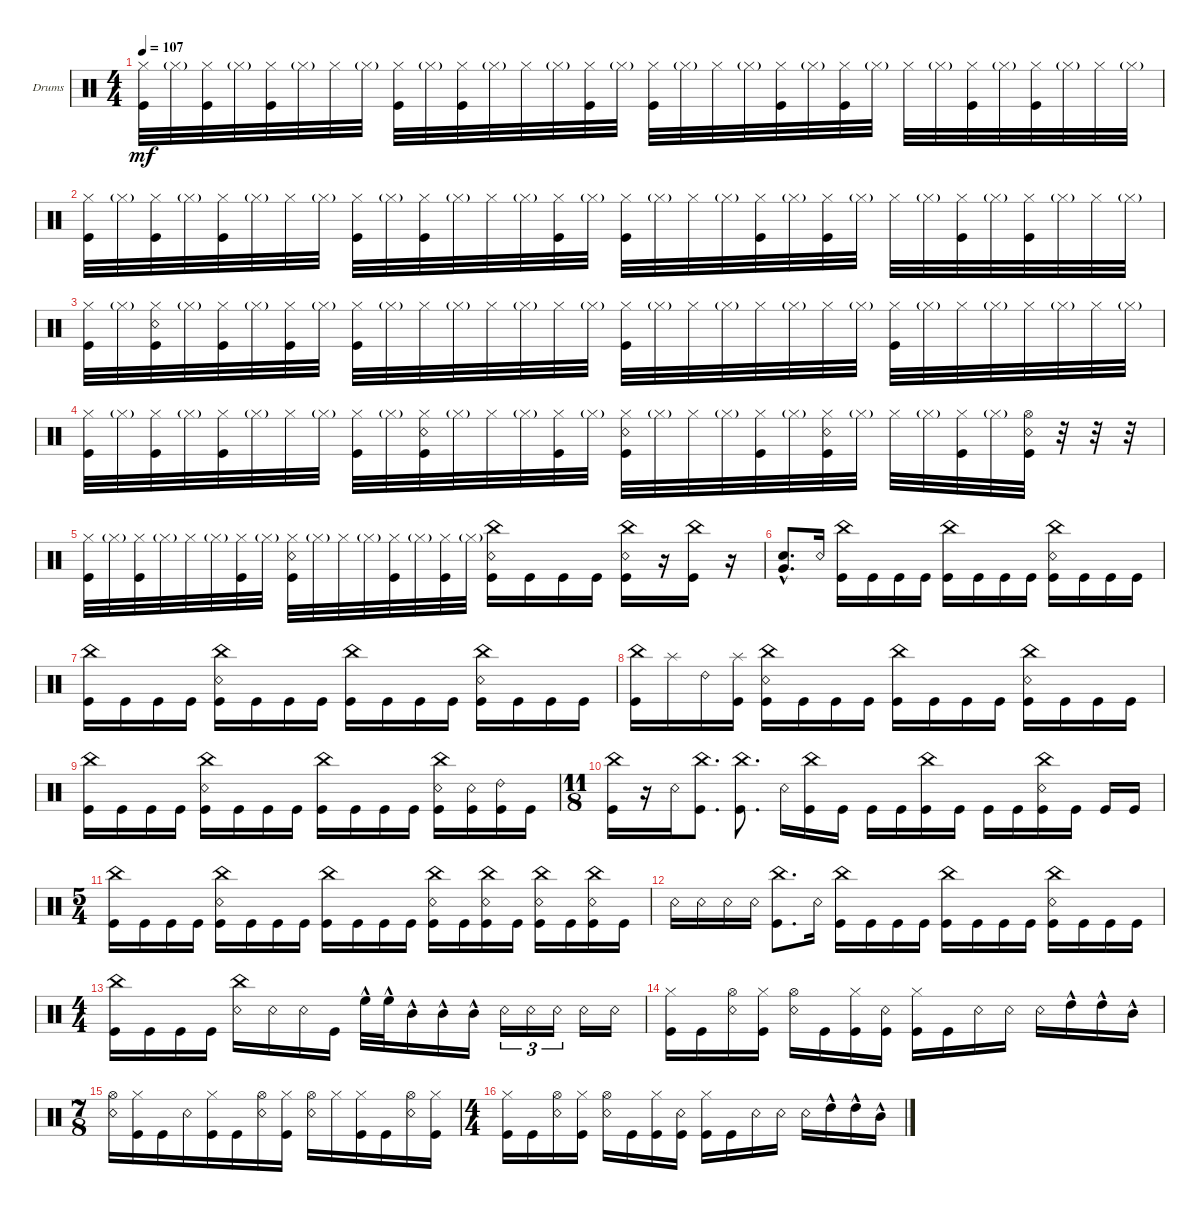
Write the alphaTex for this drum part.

\defaultSystemsLayout 4
\bracketExtendMode groupsimilarinstruments
\firstSystemTrackNameOrientation horizontal
\otherSystemsTrackNameOrientation horizontal
\track ("Drumkit" "Drums") {instrument percussion}
\staff {score}
\articulation defaults
\ts (4 4)
\tempo 107
\clef neutral
\scale
0.333333
\ks c
("Hi-Hat (closed)" "Kick (hit)").32{dy mf} "Hi-Hat (closed)"{g}.32 ("Hi-Hat (closed)" "Kick (hit)").32 "Hi-Hat (closed)"{g}.32 ("Hi-Hat (closed)" "Kick (hit)").32 "Hi-Hat (closed)"{g}.32 "Hi-Hat (closed)".32 "Hi-Hat (closed)"{g}.32 ("Hi-Hat (closed)" "Kick (hit)").32 "Hi-Hat (closed)"{g}.32 ("Hi-Hat (closed)" "Kick (hit)").32 "Hi-Hat (closed)"{g}.32 "Hi-Hat (closed)".32 "Hi-Hat (closed)"{g}.32 ("Hi-Hat (closed)" "Kick (hit)").32 "Hi-Hat (closed)"{g}.32 ("Hi-Hat (closed)" "Kick (hit)").32 "Hi-Hat (closed)"{g}.32 "Hi-Hat (closed)".32 "Hi-Hat (closed)"{g}.32 ("Hi-Hat (closed)" "Kick (hit)").32 "Hi-Hat (closed)"{g}.32 ("Hi-Hat (closed)" "Kick (hit)").32 "Hi-Hat (closed)"{g}.32 "Hi-Hat (closed)".32 "Hi-Hat (closed)"{g}.32 ("Hi-Hat (closed)" "Kick (hit)").32 "Hi-Hat (closed)"{g}.32 ("Hi-Hat (closed)" "Kick (hit)").32 "Hi-Hat (closed)"{g}.32 "Hi-Hat (closed)".32 "Hi-Hat (closed)"{g}.32 |
\scale
0.333333 ("Hi-Hat (closed)" "Kick (hit)").32 "Hi-Hat (closed)"{g}.32 ("Hi-Hat (closed)" "Kick (hit)").32 "Hi-Hat (closed)"{g}.32 ("Hi-Hat (closed)" "Kick (hit)").32 "Hi-Hat (closed)"{g}.32 "Hi-Hat (closed)".32 "Hi-Hat (closed)"{g}.32 ("Hi-Hat (closed)" "Kick (hit)").32 "Hi-Hat (closed)"{g}.32 ("Hi-Hat (closed)" "Kick (hit)").32 "Hi-Hat (closed)"{g}.32 "Hi-Hat (closed)".32 "Hi-Hat (closed)"{g}.32 ("Hi-Hat (closed)" "Kick (hit)").32 "Hi-Hat (closed)"{g}.32 ("Hi-Hat (closed)" "Kick (hit)").32 "Hi-Hat (closed)"{g}.32 "Hi-Hat (closed)".32 "Hi-Hat (closed)"{g}.32 ("Hi-Hat (closed)" "Kick (hit)").32 "Hi-Hat (closed)"{g}.32 ("Hi-Hat (closed)" "Kick (hit)").32 "Hi-Hat (closed)"{g}.32 "Hi-Hat (closed)".32 "Hi-Hat (closed)"{g}.32 ("Hi-Hat (closed)" "Kick (hit)").32 "Hi-Hat (closed)"{g}.32 ("Hi-Hat (closed)" "Kick (hit)").32 "Hi-Hat (closed)"{g}.32 "Hi-Hat (closed)".32 "Hi-Hat (closed)"{g}.32 |
\scale
0.333333 ("Hi-Hat (closed)" "Kick (hit)").32 "Hi-Hat (closed)"{g}.32 ("Hi-Hat (closed)" "Kick (hit)" "Snare (rim shot)").32 "Hi-Hat (closed)"{g}.32 ("Hi-Hat (closed)" "Kick (hit)").32 "Hi-Hat (closed)"{g}.32 ("Hi-Hat (closed)" "Kick (hit)").32 "Hi-Hat (closed)"{g}.32 ("Hi-Hat (closed)" "Kick (hit)").32 "Hi-Hat (closed)"{g}.32 "Hi-Hat (closed)".32 "Hi-Hat (closed)"{g}.32 "Hi-Hat (closed)".32 "Hi-Hat (closed)"{g}.32 "Hi-Hat (closed)".32 "Hi-Hat (closed)"{g}.32 ("Hi-Hat (closed)" "Kick (hit)").32 "Hi-Hat (closed)"{g}.32 "Hi-Hat (closed)".32 "Hi-Hat (closed)"{g}.32 "Hi-Hat (closed)".32 "Hi-Hat (closed)"{g}.32 "Hi-Hat (closed)".32 "Hi-Hat (closed)"{g}.32 ("Hi-Hat (closed)" "Kick (hit)").32 "Hi-Hat (closed)"{g}.32 "Hi-Hat (closed)".32 "Hi-Hat (closed)"{g}.32 "Hi-Hat (closed)".32 "Hi-Hat (closed)"{g}.32 "Hi-Hat (closed)".32 "Hi-Hat (closed)"{g}.32 |
\scale
0.333333 ("Hi-Hat (closed)" "Kick (hit)").32 "Hi-Hat (closed)"{g}.32 ("Hi-Hat (closed)" "Kick (hit)").32 "Hi-Hat (closed)"{g}.32 ("Hi-Hat (closed)" "Kick (hit)").32 "Hi-Hat (closed)"{g}.32 "Hi-Hat (closed)".32 "Hi-Hat (closed)"{g}.32 ("Hi-Hat (closed)" "Kick (hit)").32 "Hi-Hat (closed)"{g}.32 ("Hi-Hat (closed)" "Kick (hit)" "Snare (rim shot)").32 "Hi-Hat (closed)"{g}.32 "Hi-Hat (closed)".32 "Hi-Hat (closed)"{g}.32 ("Hi-Hat (closed)" "Kick (hit)").32 "Hi-Hat (closed)"{g}.32 ("Hi-Hat (closed)" "Kick (hit)" "Snare (rim shot)").32 "Hi-Hat (closed)"{g}.32 "Hi-Hat (closed)".32 "Hi-Hat (closed)"{g}.32 ("Hi-Hat (closed)" "Kick (hit)").32 "Hi-Hat (closed)"{g}.32 ("Hi-Hat (closed)" "Kick (hit)" "Snare (rim shot)").32 "Hi-Hat (closed)"{g}.32 "Hi-Hat (closed)".32 "Hi-Hat (closed)"{g}.32 ("Hi-Hat (closed)" "Kick (hit)").32 "Hi-Hat (closed)"{g}.32 ("Hi-Hat (open)" "Kick (hit)" "Snare (rim shot)").32 r.32 r.32 r.32 |
\scale
0.333333 ("Hi-Hat (closed)" "Kick (hit)").32 "Hi-Hat (closed)"{g}.32 ("Hi-Hat (closed)" "Kick (hit)").32 "Hi-Hat (closed)"{g}.32 "Hi-Hat (closed)".32 "Hi-Hat (closed)"{g}.32 ("Hi-Hat (closed)" "Kick (hit)").32 "Hi-Hat (closed)"{g}.32 ("Hi-Hat (closed)" "Kick (hit)" "Snare (rim shot)").32 "Hi-Hat (closed)"{g}.32 "Hi-Hat (closed)".32 "Hi-Hat (closed)"{g}.32 ("Hi-Hat (closed)" "Kick (hit)").32 "Hi-Hat (closed)"{g}.32 ("Hi-Hat (closed)" "Kick (hit)").32 "Hi-Hat (closed)"{g}.32 ("Snare (rim shot)" "China (hit)" "Kick (hit)").16 "Kick (hit)".16 "Kick (hit)".16 "Kick (hit)".16 ("Snare (rim shot)" "Kick (hit)" "China (hit)").16 r.16 ("Kick (hit)" "China (hit)").16 r.16 |
\scale
0.333333 ("Snare (hit) 2" "Very Low Tom (hit)"{hac}).8{d} "Snare (rim shot)".16 ("Kick (hit)" "China (hit)").16 "Kick (hit)".16 "Kick (hit)".16 "Kick (hit)".16 ("Kick (hit)" "China (hit)").16 "Kick (hit)".16 "Kick (hit)".16 "Kick (hit)".16 ("Kick (hit)" "China (hit)" "Snare (rim shot)").16 "Kick (hit)".16 "Kick (hit)".16 "Kick (hit)".16 |
\scale
0.333333 ("Kick (hit)" "China (hit)").16 "Kick (hit)".16 "Kick (hit)".16 "Kick (hit)".16 ("Kick (hit)" "China (hit)" "Snare (rim shot)").16 "Kick (hit)".16 "Kick (hit)".16 "Kick (hit)".16 ("Kick (hit)" "China (hit)").16 "Kick (hit)".16 "Kick (hit)".16 "Kick (hit)".16 ("Kick (hit)" "China (hit)" "Snare (rim shot)").16 "Kick (hit)".16 "Kick (hit)".16 "Kick (hit)".16 |
\scale
0.333333 ("Kick (hit)" "China (hit)").16 "Splash (hit)".16 "Ride (bell) 2".16 ("Splash (hit)" "Kick (hit)").16 ("Kick (hit)" "China (hit)" "Snare (rim shot)").16 "Kick (hit)".16 "Kick (hit)".16 "Kick (hit)".16 ("Kick (hit)" "China (hit)").16 "Kick (hit)".16 "Kick (hit)".16 "Kick (hit)".16 ("Kick (hit)" "China (hit)" "Snare (rim shot)").16 "Kick (hit)".16 "Kick (hit)".16 "Kick (hit)".16 |
\scale
0.333333 ("Kick (hit)" "China (hit)").16 "Kick (hit)".16 "Kick (hit)".16 "Kick (hit)".16 ("Kick (hit)" "China (hit)" "Snare (rim shot)").16 "Kick (hit)".16 "Kick (hit)".16 "Kick (hit)".16 ("Kick (hit)" "China (hit)").16 "Kick (hit)".16 "Kick (hit)".16 "Kick (hit)".16 ("Kick (hit)" "China (hit)" "Snare (rim shot)").16 ("Kick (hit)" "Snare (rim shot)").16 ("Kick (hit)" "Ride (bell) 2").16 "Kick (hit)".16 |
\ts (11 8)
\scale
0.333333 ("Kick (hit)" "China (hit)").16 r.16 "Snare (rim shot)".16 ("Kick (hit)" "China (hit)").8{d} ("Kick (hit)" "China (hit)").8{d} "Snare (rim shot)".16 ("Kick (hit)" "China (hit)").16 "Kick (hit)".16 "Kick (hit)".16 "Kick (hit)".16 ("Kick (hit)" "China (hit)").16 "Kick (hit)".16 "Kick (hit)".16 "Kick (hit)".16 ("Kick (hit)" "China (hit)" "Snare (rim shot)").16 "Kick (hit)".16 "Kick (hit)".16 "Kick (hit)".16 |
\ts (5 4)
\scale
0.333333 ("Kick (hit)" "China (hit)").16 "Kick (hit)".16 "Kick (hit)".16 "Kick (hit)".16 ("Kick (hit)" "China (hit)" "Snare (rim shot)").16 "Kick (hit)".16 "Kick (hit)".16 "Kick (hit)".16 ("Kick (hit)" "China (hit)").16 "Kick (hit)".16 "Kick (hit)".16 "Kick (hit)".16 ("Kick (hit)" "China (hit)" "Snare (rim shot)").16 "Kick (hit)".16 ("Kick (hit)" "China (hit)" "Snare (rim shot)").16 "Kick (hit)".16 ("Kick (hit)" "China (hit)" "Snare (rim shot)").16 "Kick (hit)".16 ("Kick (hit)" "China (hit)" "Snare (rim shot)").16 "Kick (hit)".16 |
\scale
0.333333 "Snare (rim shot)".16 "Snare (rim shot)".16 "Snare (rim shot)".16 "Snare (rim shot)".16 ("Kick (hit)" "China (hit)").8{d} "Snare (rim shot)".16 ("Kick (hit)" "China (hit)").16 "Kick (hit)".16 "Kick (hit)".16 "Kick (hit)".16 ("Kick (hit)" "China (hit)").16 "Kick (hit)".16 "Kick (hit)".16 "Kick (hit)".16 ("Kick (hit)" "China (hit)" "Snare (rim shot)").16 "Kick (hit)".16 "Kick (hit)".16 "Kick (hit)".16 |
\ts (4 4)
\scale
0.333333 ("Kick (hit)" "China (hit)").16 "Kick (hit)".16 "Kick (hit)".16 "Kick (hit)".16 ("China (hit)" "Snare (rim shot)").16 "Snare (rim shot)".16 "Snare (rim shot)".16 "Kick (hit)".16 "High Floor Tom (hit)"{hac}.32 "High Floor Tom (hit)"{hac}.32 "Mid Tom (hit)"{hac}.16 "Mid Tom (hit)"{hac}.16 "Mid Tom (hit)"{hac}.16 "Snare (rim shot)".16{tu (3 2)} "Snare (rim shot)".16{tu (3 2)} "Snare (rim shot)".16{tu (3 2)} "Snare (rim shot)".16 "Snare (rim shot)".16 |
\scale
0.333333 ("Kick (hit)" "Hi-Hat (closed)").16 "Kick (hit)".16 ("Hi-Hat (open)" "Snare (rim shot)").16 ("Hi-Hat (closed)" "Kick (hit)").16 ("Snare (rim shot)" "Hi-Hat (open)").16 "Kick (hit)".16 ("Kick (hit)" "Hi-Hat (closed)").16 ("Kick (hit)" "Snare (rim shot)").16 ("Kick (hit)" "Hi-Hat (closed)").16 "Kick (hit)".16 "Snare (rim shot)".16 "Snare (rim shot)".16 "Snare (rim shot)".16 "High Tom (hit)"{hac}.16 "High Tom (hit)"{hac}.16 "Mid Tom (hit)"{hac}.16 |
\ts (7 8)
\scale
0.333333 ("Snare (rim shot)" "Hi-Hat (open)").16 ("Kick (hit)" "Hi-Hat (closed)").16 "Kick (hit)".16 "Snare (rim shot)".16 ("Kick (hit)" "Hi-Hat (closed)").16 "Kick (hit)".16 ("Snare (rim shot)" "Hi-Hat (open)").16 ("Kick (hit)" "Hi-Hat (closed)").16 ("Snare (rim shot)" "Hi-Hat (open)").16 "Hi-Hat (closed)".16 ("Kick (hit)" "Hi-Hat (closed)").16 "Kick (hit)".16 ("Snare (rim shot)" "Hi-Hat (open)").16 ("Kick (hit)" "Hi-Hat (closed)").16 |
\ts (4 4)
\scale
0.333333 ("Kick (hit)" "Hi-Hat (closed)").16 "Kick (hit)".16 ("Hi-Hat (open)" "Snare (rim shot)").16 ("Hi-Hat (closed)" "Kick (hit)").16 ("Snare (rim shot)" "Hi-Hat (open)").16 "Kick (hit)".16 ("Kick (hit)" "Hi-Hat (closed)").16 ("Kick (hit)" "Snare (rim shot)").16 ("Kick (hit)" "Hi-Hat (closed)").16 "Kick (hit)".16 "Snare (rim shot)".16 "Snare (rim shot)".16 "Snare (rim shot)".16 "High Tom (hit)"{hac}.16 "High Tom (hit)"{hac}.16 "Mid Tom (hit)"{hac}.16
